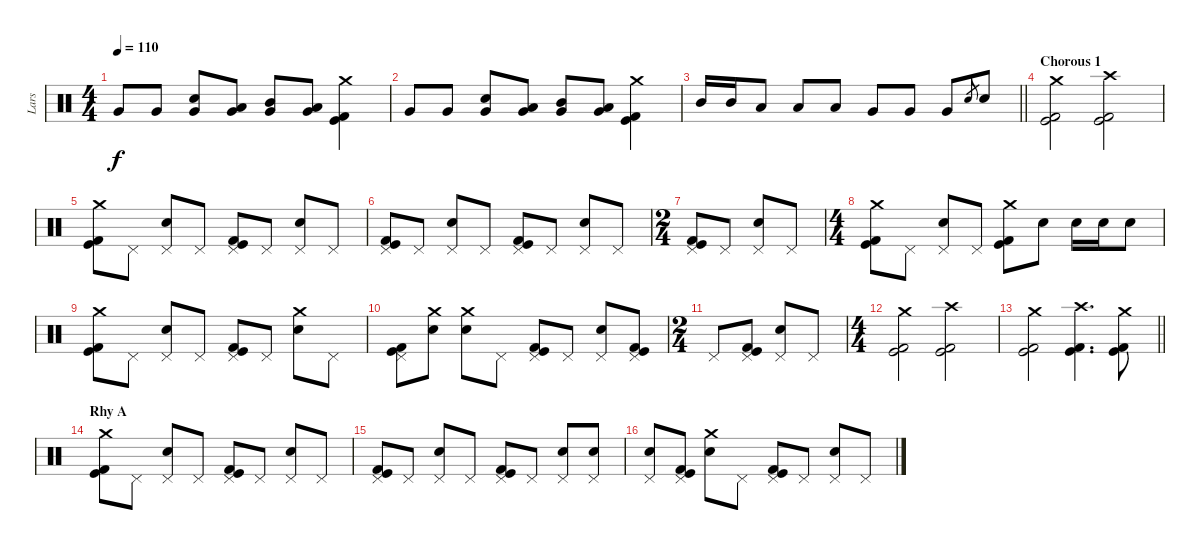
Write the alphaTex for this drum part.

\track ("Lars" "Lars") {instrument percussion}
\staff {score}
\articulation defaults
\ts (4 4)
\tempo 110
\clef neutral
\ks c "Very Low Tom (hit)".8{dy f} "Very Low Tom (hit)".8
("Very Low Tom (hit)" "Electric Snare (hit)").8 ("Very Low Tom (hit)" "Low Tom (hit)").8 ("Very Low Tom (hit)" "Mid Tom (hit)").8 ("Very Low Tom (hit)" "Low Tom (hit)").8 ("Crash medium (hit)" "Kick (hit)" "Kick (hit) 2").4 |
"Very Low Tom (hit)".8 "Very Low Tom (hit)".8 ("Very Low Tom (hit)" "Electric Snare (hit)").8 ("Very Low Tom (hit)" "Low Tom (hit)").8 ("Very Low Tom (hit)" "Mid Tom (hit)").8 ("Very Low Tom (hit)" "Low Tom (hit)").8 ("Crash medium (hit)" "Kick (hit)" "Kick (hit) 2").4 |
\barLineRight lightlight "Mid Tom (hit)".16 "Mid Tom (hit)".16 "Low Tom (hit)".8 "Low Tom (hit)".8 "Low Tom (hit)".8 "Very Low Tom (hit)".8 "Very Low Tom (hit)".8 "Very Low Tom (hit)".8 "Electric Snare (hit)".8{gr} "Electric Snare (hit)".8
|
\section ("" "Chorous 1")
("Crash medium (hit)" "Kick (hit)" "Kick (hit) 2").2 ("Crash high (hit)" "Kick (hit)" "Kick (hit) 2").2 |
("Crash medium (hit)" "Kick (hit)" "Kick (hit) 2").8 "Pedal Hi-Hat (hit)".8 ("Pedal Hi-Hat (hit)" "Electric Snare (hit)").8 "Pedal Hi-Hat (hit)".8 ("Pedal Hi-Hat (hit)" "Kick (hit)" "Kick (hit) 2").8 "Pedal Hi-Hat (hit)".8 ("Pedal Hi-Hat (hit)" "Electric Snare (hit)").8 "Pedal Hi-Hat (hit)".8 |
("Pedal Hi-Hat (hit)" "Kick (hit)" "Kick (hit) 2").8 "Pedal Hi-Hat (hit)".8 ("Pedal Hi-Hat (hit)" "Electric Snare (hit)").8 "Pedal Hi-Hat (hit)".8 ("Pedal Hi-Hat (hit)" "Kick (hit)" "Kick (hit) 2").8 "Pedal Hi-Hat (hit)".8 ("Pedal Hi-Hat (hit)" "Electric Snare (hit)").8 "Pedal Hi-Hat (hit)".8 |
\ts (2 4)
("Pedal Hi-Hat (hit)" "Kick (hit)" "Kick (hit) 2").8 "Pedal Hi-Hat (hit)".8 ("Pedal Hi-Hat (hit)" "Electric Snare (hit)").8 "Pedal Hi-Hat (hit)".8 |
\ts (4 4)
("Crash medium (hit)" "Kick (hit)" "Kick (hit) 2").8 "Pedal Hi-Hat (hit)".8 ("Pedal Hi-Hat (hit)" "Electric Snare (hit)").8 "Pedal Hi-Hat (hit)".8 ("Crash medium (hit)" "Kick (hit)" "Kick (hit) 2").8 "Electric Snare (hit)".8 "Electric Snare (hit)".16 "Electric Snare (hit)".16 "Electric Snare (hit)".8 |
("Crash medium (hit)" "Kick (hit)" "Kick (hit) 2").8 "Pedal Hi-Hat (hit)".8 ("Pedal Hi-Hat (hit)" "Electric Snare (hit)").8 "Pedal Hi-Hat (hit)".8 ("Pedal Hi-Hat (hit)" "Kick (hit)" "Kick (hit) 2").8 "Pedal Hi-Hat (hit)".8 ("Crash medium (hit)" "Electric Snare (hit)").8 "Pedal Hi-Hat (hit)".8 |
("Pedal Hi-Hat (hit)" "Kick (hit)" "Kick (hit) 2").8 ("Crash medium (hit)" "Electric Snare (hit)").8 ("Crash medium (hit)" "Electric Snare (hit)").8 "Pedal Hi-Hat (hit)".8 ("Pedal Hi-Hat (hit)" "Kick (hit)" "Kick (hit) 2").8 "Pedal Hi-Hat (hit)".8 ("Pedal Hi-Hat (hit)" "Electric Snare (hit)").8 ("Pedal Hi-Hat (hit)" "Kick (hit)" "Kick (hit) 2").8 |
\ts (2 4)
"Pedal Hi-Hat (hit)".8 ("Pedal Hi-Hat (hit)" "Kick (hit)" "Kick (hit) 2").8 ("Pedal Hi-Hat (hit)" "Electric Snare (hit)").8 "Pedal Hi-Hat (hit)".8 |
\ts (4 4)
("Crash medium (hit)" "Kick (hit)" "Kick (hit) 2").2 ("Crash high (hit)" "Kick (hit)" "Kick (hit) 2").2 |
\barLineRight lightlight
("Crash medium (hit)" "Kick (hit)" "Kick (hit) 2").2 ("Crash high (hit)" "Kick (hit)" "Kick (hit) 2").4{d} ("Crash medium (hit)" "Kick (hit)" "Kick (hit) 2").8 |
\section ("" "Rhy A")
("Crash medium (hit)" "Kick (hit)" "Kick (hit) 2").8 "Pedal Hi-Hat (hit)".8 ("Pedal Hi-Hat (hit)" "Electric Snare (hit)").8 "Pedal Hi-Hat (hit)".8 ("Pedal Hi-Hat (hit)" "Kick (hit)" "Kick (hit) 2").8 "Pedal Hi-Hat (hit)".8 ("Pedal Hi-Hat (hit)" "Electric Snare (hit)").8 "Pedal Hi-Hat (hit)".8 |
("Pedal Hi-Hat (hit)" "Kick (hit)" "Kick (hit) 2").8 "Pedal Hi-Hat (hit)".8 ("Pedal Hi-Hat (hit)" "Electric Snare (hit)").8 "Pedal Hi-Hat (hit)".8 ("Pedal Hi-Hat (hit)" "Kick (hit)" "Kick (hit) 2").8 "Pedal Hi-Hat (hit)".8 ("Pedal Hi-Hat (hit)" "Electric Snare (hit)").8 ("Pedal Hi-Hat (hit)" "Electric Snare (hit)").8 |
("Pedal Hi-Hat (hit)" "Electric Snare (hit)").8 ("Pedal Hi-Hat (hit)" "Kick (hit)" "Kick (hit) 2").8 ("Crash medium (hit)" "Electric Snare (hit)").8 "Pedal Hi-Hat (hit)".8 ("Pedal Hi-Hat (hit)" "Kick (hit)" "Kick (hit) 2").8 "Pedal Hi-Hat (hit)".8 ("Pedal Hi-Hat (hit)" "Electric Snare (hit)").8 "Pedal Hi-Hat (hit)".8
